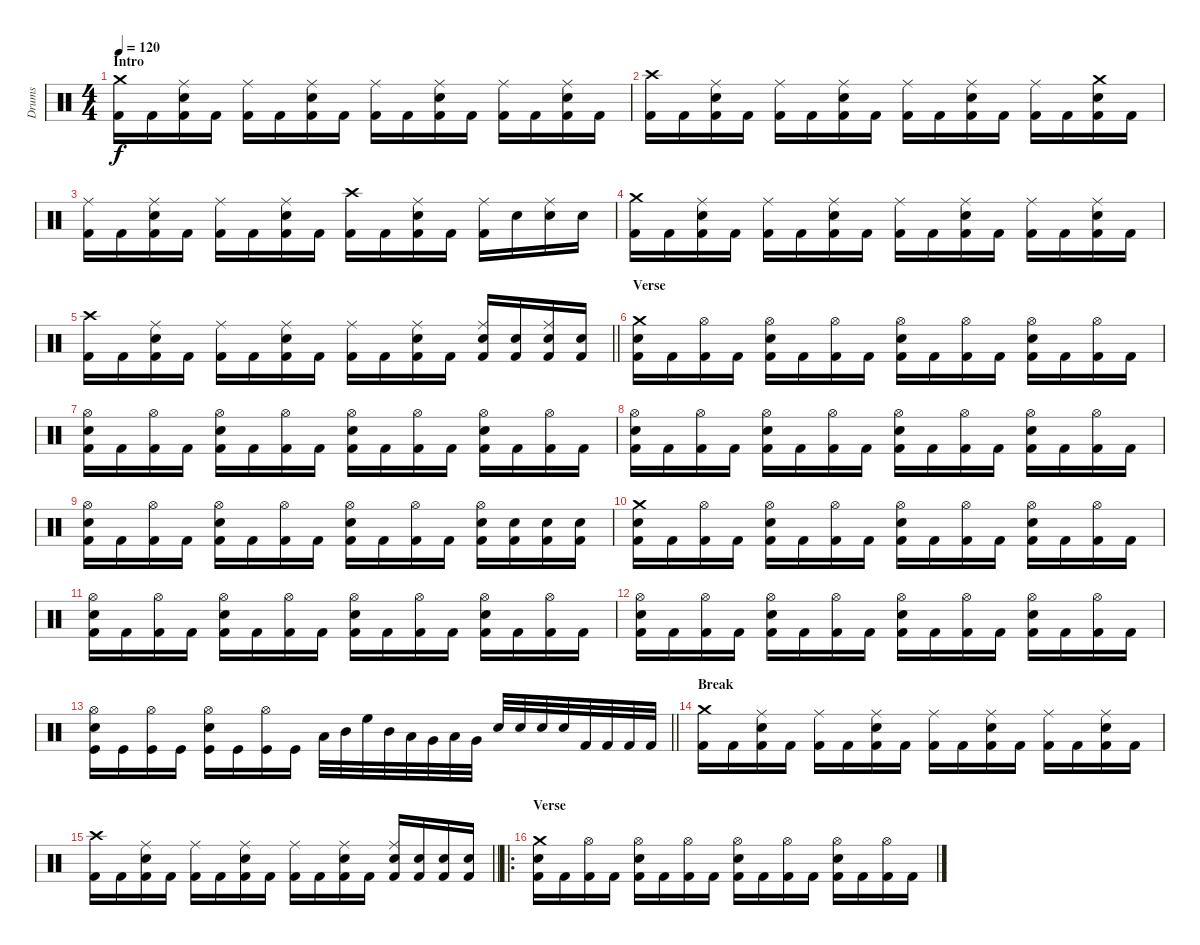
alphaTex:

\track ("Drums" "Drums") {instrument percussion}
\staff {score}
\articulation defaults
\ts (4 4)
\section ("" "Intro")
\tempo 120
\clef neutral
\ks c
("Crash medium (hit)" "Kick (hit) 2").16{dy f} "Kick (hit) 2".16 ("Ride (middle)" "Electric Snare (hit)" "Kick (hit) 2").16 "Kick (hit) 2".16 ("Ride (middle)" "Kick (hit) 2").16 "Kick (hit) 2".16 ("Ride (middle)" "Electric Snare (hit)" "Kick (hit) 2").16 "Kick (hit) 2".16 ("Ride (middle)" "Kick (hit) 2").16 "Kick (hit) 2".16 ("Ride (middle)" "Electric Snare (hit)" "Kick (hit) 2").16 "Kick (hit) 2".16 ("Ride (middle)" "Kick (hit) 2").16 "Kick (hit) 2".16 ("Ride (middle)" "Electric Snare (hit)" "Kick (hit) 2").16 "Kick (hit) 2".16 |
("Crash high (hit)" "Kick (hit) 2").16 "Kick (hit) 2".16 ("Ride (middle)" "Electric Snare (hit)" "Kick (hit) 2").16 "Kick (hit) 2".16 ("Ride (middle)" "Kick (hit) 2").16 "Kick (hit) 2".16 ("Ride (middle)" "Electric Snare (hit)" "Kick (hit) 2").16 "Kick (hit) 2".16 ("Ride (middle)" "Kick (hit) 2").16 "Kick (hit) 2".16 ("Ride (middle)" "Electric Snare (hit)" "Kick (hit) 2").16 "Kick (hit) 2".16 ("Ride (middle)" "Kick (hit) 2").16 "Kick (hit) 2".16 ("Crash medium (hit)" "Electric Snare (hit)" "Kick (hit) 2").16 "Kick (hit) 2".16 |
("Ride (middle)" "Kick (hit) 2").16 "Kick (hit) 2".16 ("Ride (middle)" "Electric Snare (hit)" "Kick (hit) 2").16 "Kick (hit) 2".16 ("Ride (middle)" "Kick (hit) 2").16 "Kick (hit) 2".16 ("Ride (middle)" "Electric Snare (hit)" "Kick (hit) 2").16 "Kick (hit) 2".16 ("Crash high (hit)" "Kick (hit) 2").16 "Kick (hit) 2".16 ("Ride (middle)" "Electric Snare (hit)" "Kick (hit) 2").16 "Kick (hit) 2".16 ("Ride (middle)" "Kick (hit) 2").16 "Electric Snare (hit)".16 ("Ride (middle)" "Electric Snare (hit)").16 "Electric Snare (hit)".16 |
("Crash medium (hit)" "Kick (hit) 2").16 "Kick (hit) 2".16 ("Ride (middle)" "Electric Snare (hit)" "Kick (hit) 2").16 "Kick (hit) 2".16 ("Ride (middle)" "Kick (hit) 2").16 "Kick (hit) 2".16 ("Ride (middle)" "Electric Snare (hit)" "Kick (hit) 2").16 "Kick (hit) 2".16 ("Ride (middle)" "Kick (hit) 2").16 "Kick (hit) 2".16 ("Ride (middle)" "Electric Snare (hit)" "Kick (hit) 2").16 "Kick (hit) 2".16 ("Ride (middle)" "Kick (hit) 2").16 "Kick (hit) 2".16 ("Ride (middle)" "Electric Snare (hit)" "Kick (hit) 2").16 "Kick (hit) 2".16 |
\barLineRight lightlight
("Crash high (hit)" "Kick (hit) 2").16 "Kick (hit) 2".16 ("Ride (middle)" "Electric Snare (hit)" "Kick (hit) 2").16 "Kick (hit) 2".16 ("Ride (middle)" "Kick (hit) 2").16 "Kick (hit) 2".16 ("Ride (middle)" "Electric Snare (hit)" "Kick (hit) 2").16 "Kick (hit) 2".16 ("Ride (middle)" "Kick (hit) 2").16 "Kick (hit) 2".16 ("Ride (middle)" "Electric Snare (hit)" "Kick (hit) 2").16 "Kick (hit) 2".16 ("Ride (middle)" "Electric Snare (hit)" "Kick (hit) 2").16 ("Electric Snare (hit)" "Kick (hit) 2").16 ("Ride (middle)" "Electric Snare (hit)" "Kick (hit) 2").16 ("Electric Snare (hit)" "Kick (hit) 2").16 |
\section ("" "Verse")
("Crash medium (hit)" "Electric Snare (hit)" "Kick (hit) 2").16 "Kick (hit) 2".16 ("Hi-Hat (open)" "Kick (hit) 2").16 "Kick (hit) 2".16 ("Hi-Hat (open)" "Electric Snare (hit)" "Kick (hit) 2").16 "Kick (hit) 2".16 ("Hi-Hat (open)" "Kick (hit) 2").16 "Kick (hit) 2".16 ("Hi-Hat (open)" "Electric Snare (hit)" "Kick (hit) 2").16 "Kick (hit) 2".16 ("Hi-Hat (open)" "Kick (hit) 2").16 "Kick (hit) 2".16 ("Hi-Hat (open)" "Electric Snare (hit)" "Kick (hit) 2").16 "Kick (hit) 2".16 ("Hi-Hat (open)" "Kick (hit) 2").16 "Kick (hit) 2".16 |
("Hi-Hat (open)" "Electric Snare (hit)" "Kick (hit) 2").16 "Kick (hit) 2".16 ("Hi-Hat (open)" "Kick (hit) 2").16 "Kick (hit) 2".16 ("Hi-Hat (open)" "Electric Snare (hit)" "Kick (hit) 2").16 "Kick (hit) 2".16 ("Hi-Hat (open)" "Kick (hit) 2").16 "Kick (hit) 2".16 ("Hi-Hat (open)" "Electric Snare (hit)" "Kick (hit) 2").16 "Kick (hit) 2".16 ("Hi-Hat (open)" "Kick (hit) 2").16 "Kick (hit) 2".16 ("Hi-Hat (open)" "Electric Snare (hit)" "Kick (hit) 2").16 "Kick (hit) 2".16 ("Hi-Hat (open)" "Kick (hit) 2").16 "Kick (hit) 2".16 |
("Hi-Hat (open)" "Electric Snare (hit)" "Kick (hit) 2").16 "Kick (hit) 2".16 ("Hi-Hat (open)" "Kick (hit) 2").16 "Kick (hit) 2".16 ("Hi-Hat (open)" "Electric Snare (hit)" "Kick (hit) 2").16 "Kick (hit) 2".16 ("Hi-Hat (open)" "Kick (hit) 2").16 "Kick (hit) 2".16 ("Hi-Hat (open)" "Electric Snare (hit)" "Kick (hit) 2").16 "Kick (hit) 2".16 ("Hi-Hat (open)" "Kick (hit) 2").16 "Kick (hit) 2".16 ("Hi-Hat (open)" "Electric Snare (hit)" "Kick (hit) 2").16 "Kick (hit) 2".16 ("Hi-Hat (open)" "Kick (hit) 2").16 "Kick (hit) 2".16 |
("Hi-Hat (open)" "Electric Snare (hit)" "Kick (hit) 2").16 "Kick (hit) 2".16 ("Hi-Hat (open)" "Kick (hit) 2").16 "Kick (hit) 2".16 ("Hi-Hat (open)" "Electric Snare (hit)" "Kick (hit) 2").16 "Kick (hit) 2".16 ("Hi-Hat (open)" "Kick (hit) 2").16 "Kick (hit) 2".16 ("Hi-Hat (open)" "Electric Snare (hit)" "Kick (hit) 2").16 "Kick (hit) 2".16 ("Hi-Hat (open)" "Kick (hit) 2").16 "Kick (hit) 2".16 ("Hi-Hat (open)" "Electric Snare (hit)" "Kick (hit) 2").16 ("Electric Snare (hit)" "Kick (hit) 2").16 ("Electric Snare (hit)" "Kick (hit) 2").16 ("Electric Snare (hit)" "Kick (hit) 2").16 |
("Crash medium (hit)" "Electric Snare (hit)" "Kick (hit) 2").16 "Kick (hit) 2".16 ("Hi-Hat (open)" "Kick (hit) 2").16 "Kick (hit) 2".16 ("Hi-Hat (open)" "Electric Snare (hit)" "Kick (hit) 2").16 "Kick (hit) 2".16 ("Hi-Hat (open)" "Kick (hit) 2").16 "Kick (hit) 2".16 ("Hi-Hat (open)" "Electric Snare (hit)" "Kick (hit) 2").16 "Kick (hit) 2".16 ("Hi-Hat (open)" "Kick (hit) 2").16 "Kick (hit) 2".16 ("Hi-Hat (open)" "Electric Snare (hit)" "Kick (hit) 2").16 "Kick (hit) 2".16 ("Hi-Hat (open)" "Kick (hit) 2").16 "Kick (hit) 2".16 |
("Hi-Hat (open)" "Electric Snare (hit)" "Kick (hit) 2").16 "Kick (hit) 2".16 ("Hi-Hat (open)" "Kick (hit) 2").16 "Kick (hit) 2".16 ("Hi-Hat (open)" "Electric Snare (hit)" "Kick (hit) 2").16 "Kick (hit) 2".16 ("Hi-Hat (open)" "Kick (hit) 2").16 "Kick (hit) 2".16 ("Hi-Hat (open)" "Electric Snare (hit)" "Kick (hit) 2").16 "Kick (hit) 2".16 ("Hi-Hat (open)" "Kick (hit) 2").16 "Kick (hit) 2".16 ("Hi-Hat (open)" "Electric Snare (hit)" "Kick (hit) 2").16 "Kick (hit) 2".16 ("Hi-Hat (open)" "Kick (hit) 2").16 "Kick (hit) 2".16 |
("Hi-Hat (open)" "Electric Snare (hit)" "Kick (hit) 2").16 "Kick (hit) 2".16 ("Hi-Hat (open)" "Kick (hit) 2").16 "Kick (hit) 2".16 ("Hi-Hat (open)" "Electric Snare (hit)" "Kick (hit) 2").16 "Kick (hit) 2".16 ("Hi-Hat (open)" "Kick (hit) 2").16 "Kick (hit) 2".16 ("Hi-Hat (open)" "Electric Snare (hit)" "Kick (hit) 2").16 "Kick (hit) 2".16 ("Hi-Hat (open)" "Kick (hit) 2").16 "Kick (hit) 2".16 ("Hi-Hat (open)" "Electric Snare (hit)" "Kick (hit) 2").16 "Kick (hit) 2".16 ("Hi-Hat (open)" "Kick (hit) 2").16 "Kick (hit) 2".16 |
\barLineRight lightlight
("Hi-Hat (open)" "Electric Snare (hit)" "Kick (hit)").16 "Kick (hit)".16 ("Hi-Hat (open)" "Kick (hit)").16 "Kick (hit)".16 ("Hi-Hat (open)" "Electric Snare (hit)" "Kick (hit)").16 "Kick (hit)".16 ("Hi-Hat (open)" "Kick (hit)").16 "Kick (hit)".16 "Low Tom (hit)".32 "Mid Tom (hit)".32 "High Floor Tom (hit)".32 "Mid Tom (hit)".32 "Low Tom (hit)".32 "Very Low Tom (hit)".32 "Low Tom (hit)".32 "Very Low Tom (hit)".32 "Electric Snare (hit)".32 "Electric Snare (hit)".32 "Electric Snare (hit)".32 "Electric Snare (hit)".32 "Kick (hit) 2".32 "Kick (hit) 2".32 "Kick (hit) 2".32 "Kick (hit) 2".32 |
\section ("" "Break")
("Crash medium (hit)" "Kick (hit) 2").16 "Kick (hit) 2".16 ("Ride (middle)" "Electric Snare (hit)" "Kick (hit) 2").16 "Kick (hit) 2".16 ("Ride (middle)" "Kick (hit) 2").16 "Kick (hit) 2".16 ("Ride (middle)" "Electric Snare (hit)" "Kick (hit) 2").16 "Kick (hit) 2".16 ("Ride (middle)" "Kick (hit) 2").16 "Kick (hit) 2".16 ("Ride (middle)" "Electric Snare (hit)" "Kick (hit) 2").16 "Kick (hit) 2".16 ("Ride (middle)" "Kick (hit) 2").16 "Kick (hit) 2".16 ("Ride (middle)" "Electric Snare (hit)" "Kick (hit) 2").16 "Kick (hit) 2".16 |
\barLineRight lightlight
("Crash high (hit)" "Kick (hit) 2").16 "Kick (hit) 2".16 ("Ride (middle)" "Electric Snare (hit)" "Kick (hit) 2").16 "Kick (hit) 2".16 ("Ride (middle)" "Kick (hit) 2").16 "Kick (hit) 2".16 ("Ride (middle)" "Electric Snare (hit)" "Kick (hit) 2").16 "Kick (hit) 2".16 ("Ride (middle)" "Kick (hit) 2").16 "Kick (hit) 2".16 ("Ride (middle)" "Electric Snare (hit)" "Kick (hit) 2").16 "Kick (hit) 2".16 ("Ride (middle)" "Electric Snare (hit)" "Kick (hit) 2").16 ("Electric Snare (hit)" "Kick (hit) 2").16 ("Electric Snare (hit)" "Kick (hit) 2").16 ("Electric Snare (hit)" "Kick (hit) 2").16 |
\ro
\section ("" "Verse")
("Crash medium (hit)" "Electric Snare (hit)" "Kick (hit) 2").16 "Kick (hit) 2".16 ("Hi-Hat (open)" "Kick (hit) 2").16 "Kick (hit) 2".16 ("Hi-Hat (open)" "Electric Snare (hit)" "Kick (hit) 2").16 "Kick (hit) 2".16 ("Hi-Hat (open)" "Kick (hit) 2").16 "Kick (hit) 2".16 ("Hi-Hat (open)" "Electric Snare (hit)" "Kick (hit) 2").16 "Kick (hit) 2".16 ("Hi-Hat (open)" "Kick (hit) 2").16 "Kick (hit) 2".16 ("Hi-Hat (open)" "Electric Snare (hit)" "Kick (hit) 2").16 "Kick (hit) 2".16 ("Hi-Hat (open)" "Kick (hit) 2").16 "Kick (hit) 2".16
